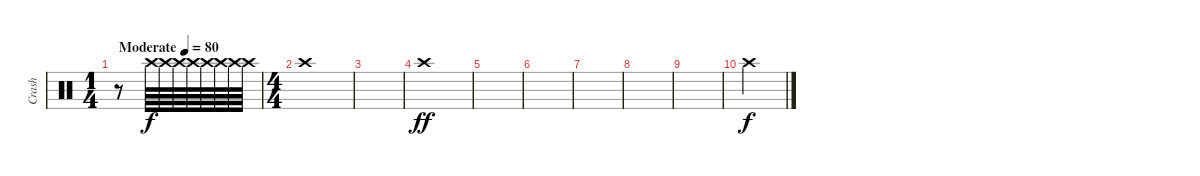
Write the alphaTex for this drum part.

\track ("Crash" "Crash") {instrument percussion}
\staff {score}
\articulation defaults
\ts (1 4)
\tempo (80 "Moderate")
\clef neutral
\ks c
r.8{dy f} "Crash high (hit)".64{volume 3} "Crash high (hit)".64{volume 12} "Crash high (hit)".64 "Crash high (hit)".64 "Crash high (hit)".64 "Crash high (hit)".64 "Crash high (hit)".64 "Crash high (hit)".64 |
\ts (4 4)
"Crash high (hit)".1{volume 13} |
|
"Crash high (hit)".1{dy ff} |
|
|
|
|
|
"Crash high (hit)".4{dy f}
